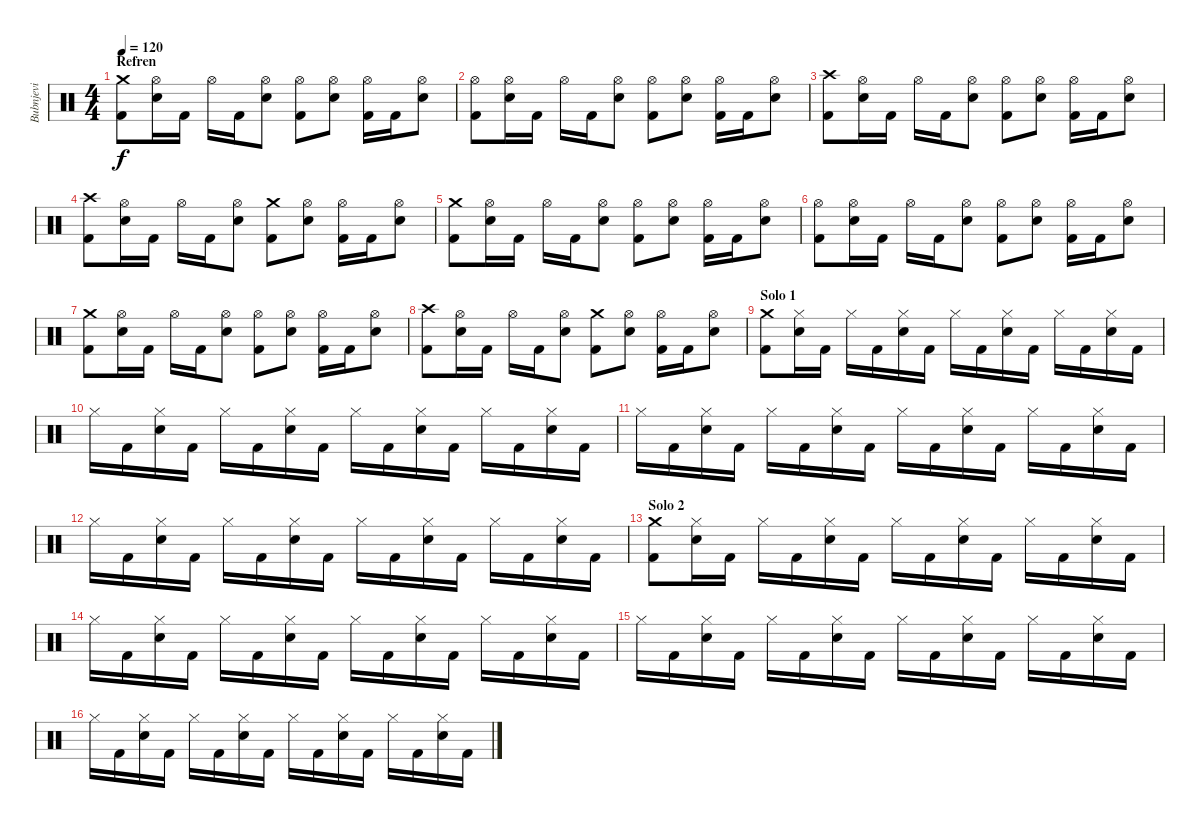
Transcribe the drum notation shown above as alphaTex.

\track ("Bubnjevi" "Bubnjevi") {instrument percussion}
\staff {score}
\articulation defaults
\ts (4 4)
\section ("" "Refren")
\tempo 120
\clef neutral
\ks c
("Crash medium (hit)" "Kick (hit) 2").8{dy f} ("Hi-Hat (open)" "Snare (hit) 2").16 "Kick (hit) 2".16 "Hi-Hat (open)".16 "Kick (hit) 2".16 ("Hi-Hat (open)" "Snare (hit) 2").8 ("Hi-Hat (open)" "Kick (hit) 2").8 ("Hi-Hat (open)" "Snare (hit) 2").8 ("Hi-Hat (open)" "Kick (hit) 2").16 "Kick (hit) 2".16 ("Hi-Hat (open)" "Snare (hit) 2").8 |
("Hi-Hat (open)" "Kick (hit) 2").8 ("Hi-Hat (open)" "Snare (hit) 2").16 "Kick (hit) 2".16 "Hi-Hat (open)".16 "Kick (hit) 2".16 ("Hi-Hat (open)" "Snare (hit) 2").8 ("Hi-Hat (open)" "Kick (hit) 2").8 ("Hi-Hat (open)" "Snare (hit) 2").8 ("Hi-Hat (open)" "Kick (hit) 2").16 "Kick (hit) 2".16 ("Hi-Hat (open)" "Snare (hit) 2").8 |
("Crash high (hit)" "Kick (hit) 2").8 ("Hi-Hat (open)" "Snare (hit) 2").16 "Kick (hit) 2".16 "Hi-Hat (open)".16 "Kick (hit) 2".16 ("Hi-Hat (open)" "Snare (hit) 2").8 ("Hi-Hat (open)" "Kick (hit) 2").8 ("Hi-Hat (open)" "Snare (hit) 2").8 ("Hi-Hat (open)" "Kick (hit) 2").16 "Kick (hit) 2".16 ("Hi-Hat (open)" "Snare (hit) 2").8 |
("Crash high (hit)" "Kick (hit) 2").8 ("Hi-Hat (open)" "Snare (hit) 2").16 "Kick (hit) 2".16 "Hi-Hat (open)".16 "Kick (hit) 2".16 ("Hi-Hat (open)" "Snare (hit) 2").8 ("Crash medium (hit)" "Kick (hit) 2").8 ("Hi-Hat (open)" "Snare (hit) 2").8 ("Hi-Hat (open)" "Kick (hit) 2").16 "Kick (hit) 2".16 ("Hi-Hat (open)" "Snare (hit) 2").8 |
("Crash medium (hit)" "Kick (hit) 2").8 ("Hi-Hat (open)" "Snare (hit) 2").16 "Kick (hit) 2".16 "Hi-Hat (open)".16 "Kick (hit) 2".16 ("Hi-Hat (open)" "Snare (hit) 2").8 ("Hi-Hat (open)" "Kick (hit) 2").8 ("Hi-Hat (open)" "Snare (hit) 2").8 ("Hi-Hat (open)" "Kick (hit) 2").16 "Kick (hit) 2".16 ("Hi-Hat (open)" "Snare (hit) 2").8 |
("Hi-Hat (open)" "Kick (hit) 2").8 ("Hi-Hat (open)" "Snare (hit) 2").16 "Kick (hit) 2".16 "Hi-Hat (open)".16 "Kick (hit) 2".16 ("Hi-Hat (open)" "Snare (hit) 2").8 ("Hi-Hat (open)" "Kick (hit) 2").8 ("Hi-Hat (open)" "Snare (hit) 2").8 ("Hi-Hat (open)" "Kick (hit) 2").16 "Kick (hit) 2".16 ("Hi-Hat (open)" "Snare (hit) 2").8 |
("Crash medium (hit)" "Kick (hit) 2").8 ("Hi-Hat (open)" "Snare (hit) 2").16 "Kick (hit) 2".16 "Hi-Hat (open)".16 "Kick (hit) 2".16 ("Hi-Hat (open)" "Snare (hit) 2").8 ("Hi-Hat (open)" "Kick (hit) 2").8 ("Hi-Hat (open)" "Snare (hit) 2").8 ("Hi-Hat (open)" "Kick (hit) 2").16 "Kick (hit) 2".16 ("Hi-Hat (open)" "Snare (hit) 2").8 |
("Crash high (hit)" "Kick (hit) 2").8 ("Hi-Hat (open)" "Snare (hit) 2").16 "Kick (hit) 2".16 "Hi-Hat (open)".16 "Kick (hit) 2".16 ("Hi-Hat (open)" "Snare (hit) 2").8 ("Crash medium (hit)" "Kick (hit) 2").8 ("Hi-Hat (open)" "Snare (hit) 2").8 ("Hi-Hat (open)" "Kick (hit) 2").16 "Kick (hit) 2".16 ("Hi-Hat (open)" "Snare (hit) 2").8 |
\section ("" "Solo 1")
("Crash medium (hit)" "Kick (hit) 2").8 ("Hi-Hat (closed)" "Snare (hit) 2").16 "Kick (hit) 2".16 "Hi-Hat (closed)".16 "Kick (hit) 2".16 ("Hi-Hat (closed)" "Snare (hit) 2").16 "Kick (hit) 2".16 "Hi-Hat (closed)".16 "Kick (hit) 2".16 ("Hi-Hat (closed)" "Snare (hit) 2").16 "Kick (hit) 2".16 "Hi-Hat (closed)".16 "Kick (hit) 2".16 ("Hi-Hat (closed)" "Snare (hit) 2").16 "Kick (hit) 2".16 |
"Hi-Hat (closed)".16 "Kick (hit) 2".16 ("Hi-Hat (closed)" "Snare (hit) 2").16 "Kick (hit) 2".16 "Hi-Hat (closed)".16 "Kick (hit) 2".16 ("Hi-Hat (closed)" "Snare (hit) 2").16 "Kick (hit) 2".16 "Hi-Hat (closed)".16 "Kick (hit) 2".16 ("Hi-Hat (closed)" "Snare (hit) 2").16 "Kick (hit) 2".16 "Hi-Hat (closed)".16 "Kick (hit) 2".16 ("Hi-Hat (closed)" "Snare (hit) 2").16 "Kick (hit) 2".16 |
"Hi-Hat (closed)".16 "Kick (hit) 2".16 ("Hi-Hat (closed)" "Snare (hit) 2").16 "Kick (hit) 2".16 "Hi-Hat (closed)".16 "Kick (hit) 2".16 ("Hi-Hat (closed)" "Snare (hit) 2").16 "Kick (hit) 2".16 "Hi-Hat (closed)".16 "Kick (hit) 2".16 ("Hi-Hat (closed)" "Snare (hit) 2").16 "Kick (hit) 2".16 "Hi-Hat (closed)".16 "Kick (hit) 2".16 ("Hi-Hat (closed)" "Snare (hit) 2").16 "Kick (hit) 2".16 |
"Hi-Hat (closed)".16 "Kick (hit) 2".16 ("Hi-Hat (closed)" "Snare (hit) 2").16 "Kick (hit) 2".16 "Hi-Hat (closed)".16 "Kick (hit) 2".16 ("Hi-Hat (closed)" "Snare (hit) 2").16 "Kick (hit) 2".16 "Hi-Hat (closed)".16 "Kick (hit) 2".16 ("Hi-Hat (closed)" "Snare (hit) 2").16 "Kick (hit) 2".16 "Hi-Hat (closed)".16 "Kick (hit) 2".16 ("Hi-Hat (closed)" "Snare (hit) 2").16 "Kick (hit) 2".16 |
\section ("" "Solo 2")
("Crash medium (hit)" "Kick (hit) 2").8 ("Hi-Hat (closed)" "Snare (hit) 2").16 "Kick (hit) 2".16 "Hi-Hat (closed)".16 "Kick (hit) 2".16 ("Hi-Hat (closed)" "Snare (hit) 2").16 "Kick (hit) 2".16 "Hi-Hat (closed)".16 "Kick (hit) 2".16 ("Hi-Hat (closed)" "Snare (hit) 2").16 "Kick (hit) 2".16 "Hi-Hat (closed)".16 "Kick (hit) 2".16 ("Hi-Hat (closed)" "Snare (hit) 2").16 "Kick (hit) 2".16 |
"Hi-Hat (closed)".16 "Kick (hit) 2".16 ("Hi-Hat (closed)" "Snare (hit) 2").16 "Kick (hit) 2".16 "Hi-Hat (closed)".16 "Kick (hit) 2".16 ("Hi-Hat (closed)" "Snare (hit) 2").16 "Kick (hit) 2".16 "Hi-Hat (closed)".16 "Kick (hit) 2".16 ("Hi-Hat (closed)" "Snare (hit) 2").16 "Kick (hit) 2".16 "Hi-Hat (closed)".16 "Kick (hit) 2".16 ("Hi-Hat (closed)" "Snare (hit) 2").16 "Kick (hit) 2".16 |
"Hi-Hat (closed)".16 "Kick (hit) 2".16 ("Hi-Hat (closed)" "Snare (hit) 2").16 "Kick (hit) 2".16 "Hi-Hat (closed)".16 "Kick (hit) 2".16 ("Hi-Hat (closed)" "Snare (hit) 2").16 "Kick (hit) 2".16 "Hi-Hat (closed)".16 "Kick (hit) 2".16 ("Hi-Hat (closed)" "Snare (hit) 2").16 "Kick (hit) 2".16 "Hi-Hat (closed)".16 "Kick (hit) 2".16 ("Hi-Hat (closed)" "Snare (hit) 2").16 "Kick (hit) 2".16 |
"Hi-Hat (closed)".16 "Kick (hit) 2".16 ("Hi-Hat (closed)" "Snare (hit) 2").16 "Kick (hit) 2".16 "Hi-Hat (closed)".16 "Kick (hit) 2".16 ("Hi-Hat (closed)" "Snare (hit) 2").16 "Kick (hit) 2".16 "Hi-Hat (closed)".16 "Kick (hit) 2".16 ("Hi-Hat (closed)" "Snare (hit) 2").16 "Kick (hit) 2".16 "Hi-Hat (closed)".16 "Kick (hit) 2".16 ("Hi-Hat (closed)" "Snare (hit) 2").16 "Kick (hit) 2".16
